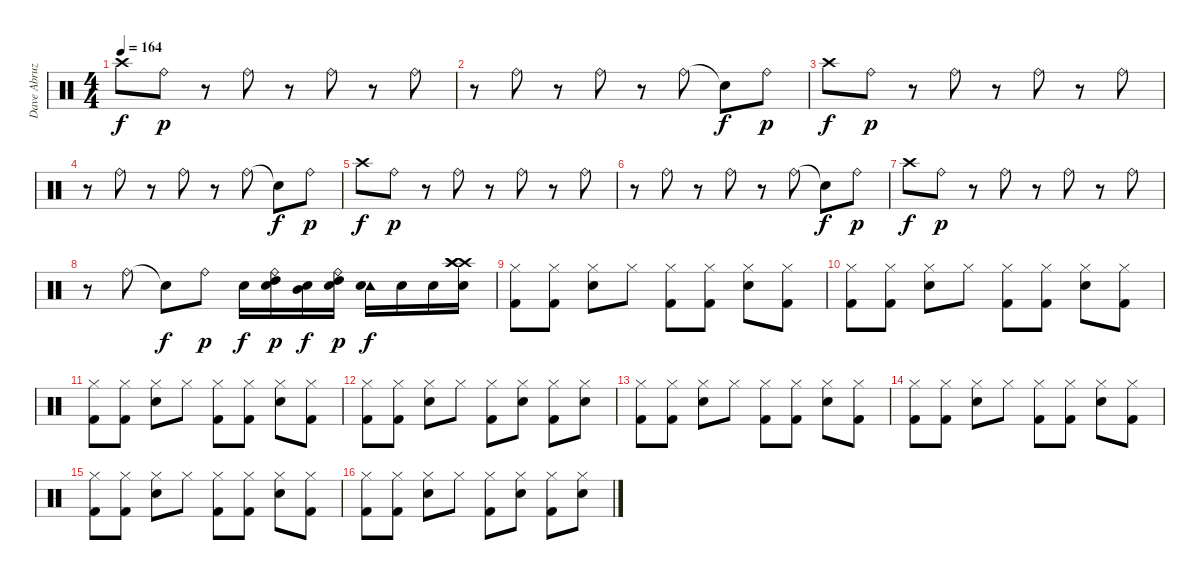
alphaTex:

\track ("Dave Abruzzese" "Dave Abruz") {instrument percussion}
\staff {score}
\articulation defaults
\ts (4 4)
\tempo 164
\clef neutral
\ks c "Crash high (hit)".8{dy f} "Ride (bell)".8{dy p}
r.8 "Ride (bell)".8 r.8 "Ride (bell)".8 r.8 "Ride (bell)".8 |
r.8 "Ride (bell)".8 r.8 "Ride (bell)".8 r.8 "Ride (bell)".8 "Snare (hit)"{t}.8{dy f} "Ride (bell)".8{dy p} |
"Crash high (hit)".8{dy f} "Ride (bell)".8{dy p} r.8 "Ride (bell)".8 r.8 "Ride (bell)".8 r.8 "Ride (bell)".8 |
r.8 "Ride (bell)".8 r.8 "Ride (bell)".8 r.8 "Ride (bell)".8 "Snare (hit)"{t}.8{dy f} "Ride (bell)".8{dy p} |
"Crash high (hit)".8{dy f} "Ride (bell)".8{dy p} r.8 "Ride (bell)".8 r.8 "Ride (bell)".8 r.8 "Ride (bell)".8 |
r.8 "Ride (bell)".8 r.8 "Ride (bell)".8 r.8 "Ride (bell)".8 "Snare (hit)"{t}.8{dy f} "Ride (bell)".8{dy p} |
"Crash high (hit)".8{dy f} "Ride (bell)".8{dy p} r.8 "Ride (bell)".8 r.8 "Ride (bell)".8 r.8 "Ride (bell)".8 |
r.8 "Ride (bell)".8 "Snare (hit) 2"{t}.8{dy f} "Ride (bell)".8{dy p} "Snare (hit) 2".16{dy f} ("High Tom (hit)" "Snare (hit) 2" "Ride (bell)").16{dy p} ("Mid Tom (hit)" "Snare (hit) 2").16{dy f} ("High Tom (hit)" "Snare (hit) 2" "Ride (bell)").16{dy p} ("Tambourine (hit)" "Snare (hit) 2").16{dy f} "Snare (hit) 2".16 "Snare (hit) 2".16 ("Crash high (hit)" "Snare (hit) 2" "Crash high (hit)" "Crash high (hit)").16 |
("Kick (hit) 2" "Hi-Hat (closed)").8 ("Kick (hit) 2" "Hi-Hat (closed)").8 ("Snare (hit) 2" "Hi-Hat (closed)").8 "Hi-Hat (closed)".8 ("Kick (hit) 2" "Hi-Hat (closed)").8 ("Kick (hit) 2" "Hi-Hat (closed)").8 ("Snare (hit) 2" "Hi-Hat (closed)").8 ("Kick (hit) 2" "Hi-Hat (closed)").8 |
("Kick (hit) 2" "Hi-Hat (closed)").8 ("Kick (hit) 2" "Hi-Hat (closed)").8 ("Snare (hit) 2" "Hi-Hat (closed)").8 "Hi-Hat (closed)".8 ("Kick (hit) 2" "Hi-Hat (closed)").8 ("Kick (hit) 2" "Hi-Hat (closed)").8 ("Snare (hit) 2" "Hi-Hat (closed)").8 ("Kick (hit) 2" "Hi-Hat (closed)").8 |
("Kick (hit) 2" "Hi-Hat (closed)").8 ("Kick (hit) 2" "Hi-Hat (closed)").8 ("Snare (hit) 2" "Hi-Hat (closed)").8 "Hi-Hat (closed)".8 ("Kick (hit) 2" "Hi-Hat (closed)").8 ("Kick (hit) 2" "Hi-Hat (closed)").8 ("Snare (hit) 2" "Hi-Hat (closed)").8 ("Kick (hit) 2" "Hi-Hat (closed)").8 |
("Kick (hit) 2" "Hi-Hat (closed)").8 ("Kick (hit) 2" "Hi-Hat (closed)").8 ("Snare (hit) 2" "Hi-Hat (closed)").8 "Hi-Hat (closed)".8 ("Kick (hit) 2" "Hi-Hat (closed)").8 ("Snare (hit) 2" "Hi-Hat (closed)").8 ("Kick (hit) 2" "Hi-Hat (closed)").8 ("Snare (hit) 2" "Hi-Hat (closed)").8 |
("Kick (hit) 2" "Hi-Hat (closed)").8 ("Kick (hit) 2" "Hi-Hat (closed)").8 ("Snare (hit) 2" "Hi-Hat (closed)").8 "Hi-Hat (closed)".8 ("Kick (hit) 2" "Hi-Hat (closed)").8 ("Kick (hit) 2" "Hi-Hat (closed)").8 ("Snare (hit) 2" "Hi-Hat (closed)").8 ("Kick (hit) 2" "Hi-Hat (closed)").8 |
("Kick (hit) 2" "Hi-Hat (closed)").8 ("Kick (hit) 2" "Hi-Hat (closed)").8 ("Snare (hit) 2" "Hi-Hat (closed)").8 "Hi-Hat (closed)".8 ("Kick (hit) 2" "Hi-Hat (closed)").8 ("Kick (hit) 2" "Hi-Hat (closed)").8 ("Snare (hit) 2" "Hi-Hat (closed)").8 ("Kick (hit) 2" "Hi-Hat (closed)").8 |
("Kick (hit) 2" "Hi-Hat (closed)").8 ("Kick (hit) 2" "Hi-Hat (closed)").8 ("Snare (hit) 2" "Hi-Hat (closed)").8 "Hi-Hat (closed)".8 ("Kick (hit) 2" "Hi-Hat (closed)").8 ("Kick (hit) 2" "Hi-Hat (closed)").8 ("Snare (hit) 2" "Hi-Hat (closed)").8 ("Kick (hit) 2" "Hi-Hat (closed)").8 |
("Kick (hit) 2" "Hi-Hat (closed)").8 ("Kick (hit) 2" "Hi-Hat (closed)").8 ("Snare (hit) 2" "Hi-Hat (closed)").8 "Hi-Hat (closed)".8 ("Kick (hit) 2" "Hi-Hat (closed)").8 ("Snare (hit) 2" "Hi-Hat (closed)").8 ("Kick (hit) 2" "Hi-Hat (closed)").8 ("Snare (hit) 2" "Hi-Hat (closed)").8
